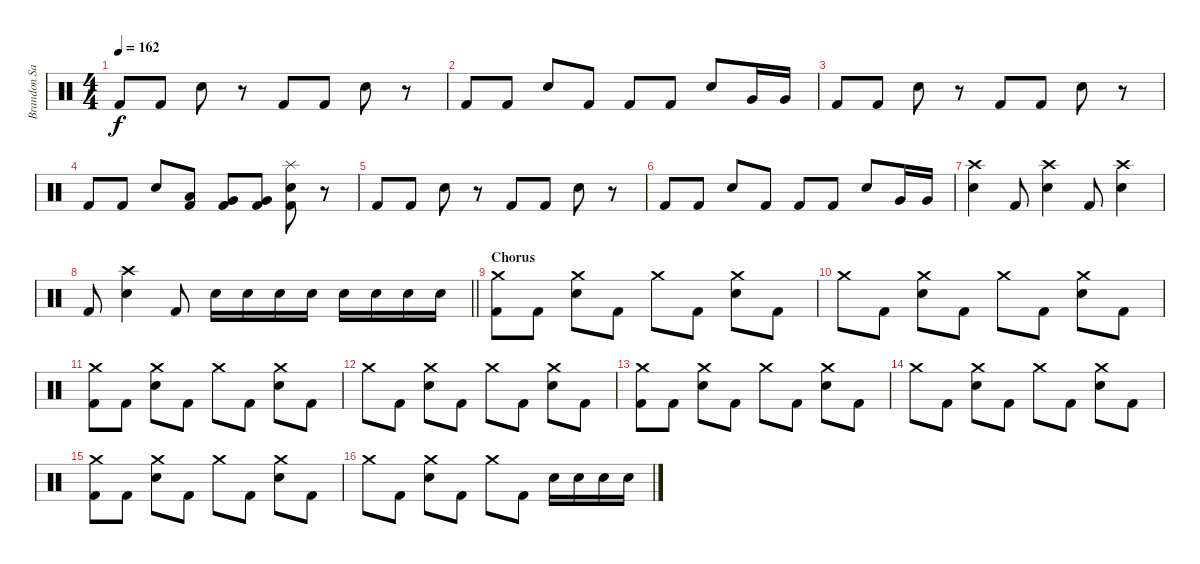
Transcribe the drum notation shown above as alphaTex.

\track ("Brandon Saller" "Brandon Sa") {instrument percussion}
\staff {score}
\articulation defaults
\ts (4 4)
\tempo 162
\clef neutral
\ks c "Kick (hit) 2".8{dy f} "Kick (hit) 2".8 "Electric Snare (hit)".8
r.8 "Kick (hit) 2".8 "Kick (hit) 2".8 "Electric Snare (hit)".8 r.8 |
"Kick (hit) 2".8 "Kick (hit) 2".8 "Electric Snare (hit)".8 "Kick (hit) 2".8 "Kick (hit) 2".8 "Kick (hit) 2".8 "Electric Snare (hit)".8 "Very Low Tom (hit)".16 "Very Low Tom (hit)".16 |
"Kick (hit) 2".8 "Kick (hit) 2".8 "Electric Snare (hit)".8 r.8 "Kick (hit) 2".8 "Kick (hit) 2".8 "Electric Snare (hit)".8 r.8 |
"Kick (hit) 2".8 "Kick (hit) 2".8 "Electric Snare (hit)".8 ("Low Tom (hit)" "Kick (hit) 2").8 ("Very Low Tom (hit)" "Kick (hit) 2").8 ("Very Low Tom (hit)" "Kick (hit) 2").8 ("Splash (hit)" "Electric Snare (hit)" "Kick (hit) 2").8 r.8 |
"Kick (hit) 2".8 "Kick (hit) 2".8 "Electric Snare (hit)".8 r.8 "Kick (hit) 2".8 "Kick (hit) 2".8 "Electric Snare (hit)".8 r.8 |
"Kick (hit) 2".8 "Kick (hit) 2".8 "Electric Snare (hit)".8 "Kick (hit) 2".8 "Kick (hit) 2".8 "Kick (hit) 2".8 "Electric Snare (hit)".8 "Very Low Tom (hit)".16 "Very Low Tom (hit)".16 |
("Crash high (hit)" "Electric Snare (hit)").4 "Kick (hit) 2".8 ("Crash high (hit)" "Electric Snare (hit)").4 "Kick (hit) 2".8 ("Crash high (hit)" "Electric Snare (hit)").4 |
\barLineRight lightlight "Kick (hit) 2".8
("Crash high (hit)" "Electric Snare (hit)").4 "Kick (hit) 2".8 "Electric Snare (hit)".16 "Electric Snare (hit)".16 "Electric Snare (hit)".16 "Electric Snare (hit)".16 "Electric Snare (hit)".16 "Electric Snare (hit)".16 "Electric Snare (hit)".16 "Electric Snare (hit)".16 |
\section ("" "Chorus")
("Crash medium (hit)" "Kick (hit) 2").8 "Kick (hit) 2".8 ("Crash medium (hit)" "Electric Snare (hit)").8 "Kick (hit) 2".8 "Crash medium (hit)".8 "Kick (hit) 2".8 ("Crash medium (hit)" "Electric Snare (hit)").8 "Kick (hit) 2".8 |
"Crash medium (hit)".8 "Kick (hit) 2".8 ("Crash medium (hit)" "Electric Snare (hit)").8 "Kick (hit) 2".8 "Crash medium (hit)".8 "Kick (hit) 2".8 ("Crash medium (hit)" "Electric Snare (hit)").8 "Kick (hit) 2".8 |
("Crash medium (hit)" "Kick (hit) 2").8 "Kick (hit) 2".8 ("Crash medium (hit)" "Electric Snare (hit)").8 "Kick (hit) 2".8 "Crash medium (hit)".8 "Kick (hit) 2".8 ("Crash medium (hit)" "Electric Snare (hit)").8 "Kick (hit) 2".8 |
"Crash medium (hit)".8 "Kick (hit) 2".8 ("Crash medium (hit)" "Electric Snare (hit)").8 "Kick (hit) 2".8 "Crash medium (hit)".8 "Kick (hit) 2".8 ("Crash medium (hit)" "Electric Snare (hit)").8 "Kick (hit) 2".8 |
("Crash medium (hit)" "Kick (hit) 2").8 "Kick (hit) 2".8 ("Crash medium (hit)" "Electric Snare (hit)").8 "Kick (hit) 2".8 "Crash medium (hit)".8 "Kick (hit) 2".8 ("Crash medium (hit)" "Electric Snare (hit)").8 "Kick (hit) 2".8 |
"Crash medium (hit)".8 "Kick (hit) 2".8 ("Crash medium (hit)" "Electric Snare (hit)").8 "Kick (hit) 2".8 "Crash medium (hit)".8 "Kick (hit) 2".8 ("Crash medium (hit)" "Electric Snare (hit)").8 "Kick (hit) 2".8 |
("Crash medium (hit)" "Kick (hit) 2").8 "Kick (hit) 2".8 ("Crash medium (hit)" "Electric Snare (hit)").8 "Kick (hit) 2".8 "Crash medium (hit)".8 "Kick (hit) 2".8 ("Crash medium (hit)" "Electric Snare (hit)").8 "Kick (hit) 2".8 |
"Crash medium (hit)".8 "Kick (hit) 2".8 ("Crash medium (hit)" "Electric Snare (hit)").8 "Kick (hit) 2".8 "Crash medium (hit)".8 "Kick (hit) 2".8 "Electric Snare (hit)".16 "Electric Snare (hit)".16 "Electric Snare (hit)".16 "Electric Snare (hit)".16
